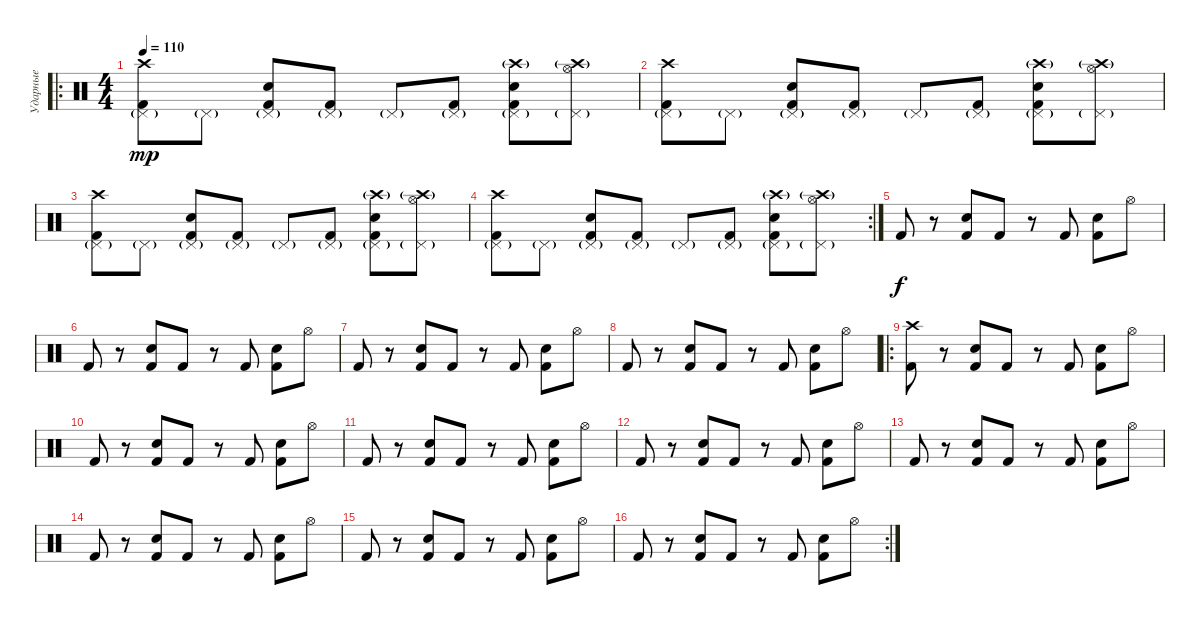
\track ("Ударные" "Ударные") {instrument percussion}
\staff {score}
\articulation defaults
\ro
\ts (4 4)
\tempo 110
\clef neutral
\ks c
("Crash high (hit)" "Kick (hit) 2" "Pedal Hi-Hat (hit)"{g}).8{dy mp} "Pedal Hi-Hat (hit)"{g}.8 ("Snare (hit) 2" "Kick (hit) 2" "Pedal Hi-Hat (hit)"{g}).8 ("Kick (hit) 2" "Pedal Hi-Hat (hit)"{g}).8 "Pedal Hi-Hat (hit)"{g}.8 ("Kick (hit) 2" "Pedal Hi-Hat (hit)"{g}).8 ("Crash high (hit)"{g} "Snare (hit) 2" "Kick (hit) 2" "Pedal Hi-Hat (hit)"{g}).8 ("Crash high (hit)"{g} "Hi-Hat (open)" "Pedal Hi-Hat (hit)"{g}).8 |
("Crash high (hit)" "Kick (hit) 2" "Pedal Hi-Hat (hit)"{g}).8 "Pedal Hi-Hat (hit)"{g}.8 ("Snare (hit) 2" "Kick (hit) 2" "Pedal Hi-Hat (hit)"{g}).8 ("Kick (hit) 2" "Pedal Hi-Hat (hit)"{g}).8 "Pedal Hi-Hat (hit)"{g}.8 ("Kick (hit) 2" "Pedal Hi-Hat (hit)"{g}).8 ("Crash high (hit)"{g} "Snare (hit) 2" "Kick (hit) 2" "Pedal Hi-Hat (hit)"{g}).8 ("Crash high (hit)"{g} "Hi-Hat (open)" "Pedal Hi-Hat (hit)"{g}).8 |
("Crash high (hit)" "Kick (hit) 2" "Pedal Hi-Hat (hit)"{g}).8 "Pedal Hi-Hat (hit)"{g}.8 ("Snare (hit) 2" "Kick (hit) 2" "Pedal Hi-Hat (hit)"{g}).8 ("Kick (hit) 2" "Pedal Hi-Hat (hit)"{g}).8 "Pedal Hi-Hat (hit)"{g}.8 ("Kick (hit) 2" "Pedal Hi-Hat (hit)"{g}).8 ("Crash high (hit)"{g} "Snare (hit) 2" "Kick (hit) 2" "Pedal Hi-Hat (hit)"{g}).8 ("Crash high (hit)"{g} "Hi-Hat (open)" "Pedal Hi-Hat (hit)"{g}).8 |
\rc 2
("Crash high (hit)" "Kick (hit) 2" "Pedal Hi-Hat (hit)"{g}).8 "Pedal Hi-Hat (hit)"{g}.8 ("Snare (hit) 2" "Kick (hit) 2" "Pedal Hi-Hat (hit)"{g}).8 ("Kick (hit) 2" "Pedal Hi-Hat (hit)"{g}).8 "Pedal Hi-Hat (hit)"{g}.8 ("Kick (hit) 2" "Pedal Hi-Hat (hit)"{g}).8 ("Crash high (hit)"{g} "Snare (hit) 2" "Kick (hit) 2" "Pedal Hi-Hat (hit)"{g}).8 ("Crash high (hit)"{g} "Hi-Hat (open)" "Pedal Hi-Hat (hit)"{g}).8 |
"Kick (hit) 2".8{dy f} r.8 ("Snare (hit) 2" "Kick (hit) 2").8 "Kick (hit) 2".8 r.8 "Kick (hit) 2".8 ("Snare (hit) 2" "Kick (hit) 2").8 "Hi-Hat (open)".8 |
"Kick (hit) 2".8 r.8 ("Snare (hit) 2" "Kick (hit) 2").8 "Kick (hit) 2".8 r.8 "Kick (hit) 2".8 ("Snare (hit) 2" "Kick (hit) 2").8 "Hi-Hat (open)".8 |
"Kick (hit) 2".8 r.8 ("Snare (hit) 2" "Kick (hit) 2").8 "Kick (hit) 2".8 r.8 "Kick (hit) 2".8 ("Snare (hit) 2" "Kick (hit) 2").8 "Hi-Hat (open)".8 |
"Kick (hit) 2".8 r.8 ("Snare (hit) 2" "Kick (hit) 2").8 "Kick (hit) 2".8 r.8 "Kick (hit) 2".8 ("Snare (hit) 2" "Kick (hit) 2").8 "Hi-Hat (open)".8 |
\ro
("Crash high (hit)" "Kick (hit) 2").8 r.8 ("Snare (hit) 2" "Kick (hit) 2").8 "Kick (hit) 2".8 r.8 "Kick (hit) 2".8 ("Snare (hit) 2" "Kick (hit) 2").8 "Hi-Hat (open)".8 |
"Kick (hit) 2".8 r.8 ("Snare (hit) 2" "Kick (hit) 2").8 "Kick (hit) 2".8 r.8 "Kick (hit) 2".8 ("Snare (hit) 2" "Kick (hit) 2").8 "Hi-Hat (open)".8 |
"Kick (hit) 2".8 r.8 ("Snare (hit) 2" "Kick (hit) 2").8 "Kick (hit) 2".8 r.8 "Kick (hit) 2".8 ("Snare (hit) 2" "Kick (hit) 2").8 "Hi-Hat (open)".8 |
"Kick (hit) 2".8 r.8 ("Snare (hit) 2" "Kick (hit) 2").8 "Kick (hit) 2".8 r.8 "Kick (hit) 2".8 ("Snare (hit) 2" "Kick (hit) 2").8 "Hi-Hat (open)".8 |
"Kick (hit) 2".8 r.8 ("Snare (hit) 2" "Kick (hit) 2").8 "Kick (hit) 2".8 r.8 "Kick (hit) 2".8 ("Snare (hit) 2" "Kick (hit) 2").8 "Hi-Hat (open)".8 |
"Kick (hit) 2".8 r.8 ("Snare (hit) 2" "Kick (hit) 2").8 "Kick (hit) 2".8 r.8 "Kick (hit) 2".8 ("Snare (hit) 2" "Kick (hit) 2").8 "Hi-Hat (open)".8 |
"Kick (hit) 2".8 r.8 ("Snare (hit) 2" "Kick (hit) 2").8 "Kick (hit) 2".8 r.8 "Kick (hit) 2".8 ("Snare (hit) 2" "Kick (hit) 2").8 "Hi-Hat (open)".8 |
\rc 2 "Kick (hit) 2".8
r.8 ("Snare (hit) 2" "Kick (hit) 2").8 "Kick (hit) 2".8 r.8 "Kick (hit) 2".8 ("Snare (hit) 2" "Kick (hit) 2").8 "Hi-Hat (open)".8
